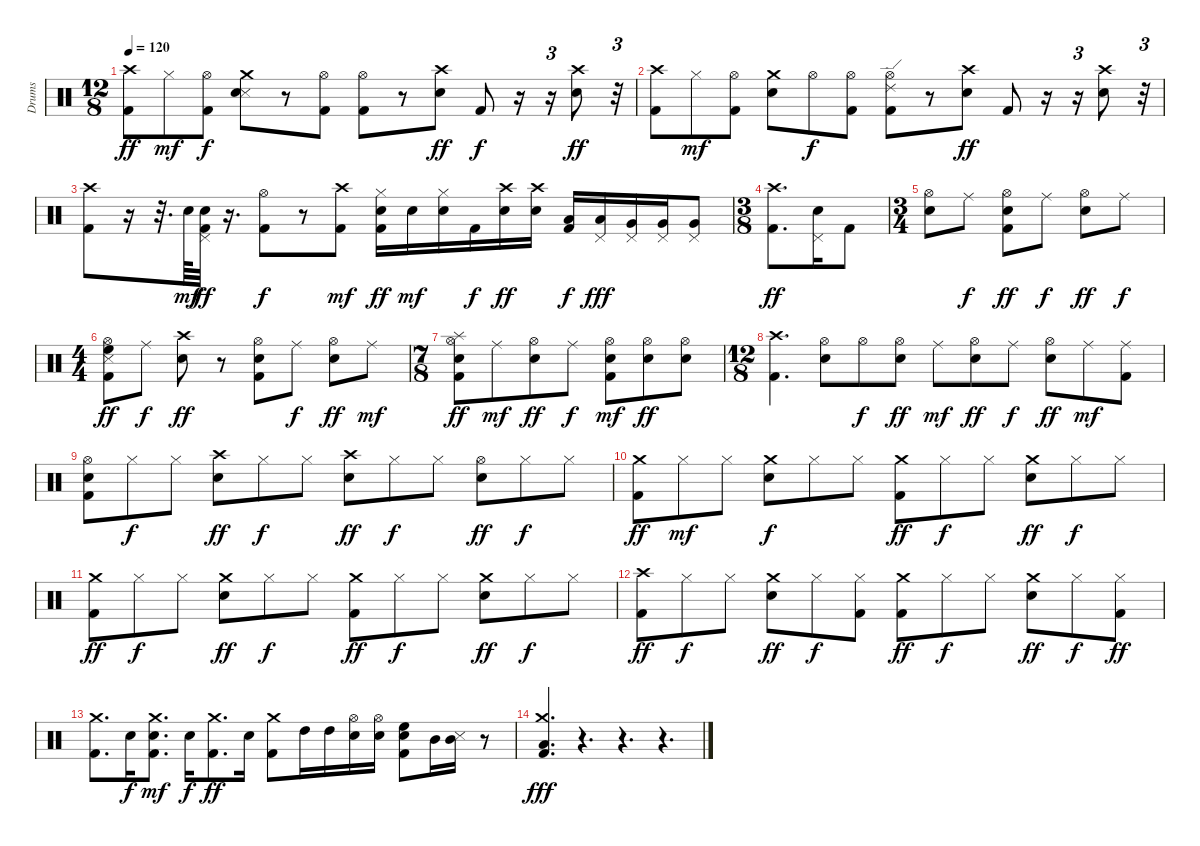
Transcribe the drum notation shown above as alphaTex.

\track ("Drums" "Drums") {instrument percussion}
\staff {score}
\articulation defaults
\ts (12 8)
\tempo 120
\clef neutral
\ks c
("Crash high (hit)" "Kick (hit) 2").8{dy ff} "Hi-Hat (closed)".8{dy mf} ("Hi-Hat (open)" "Kick (hit) 2").8{dy f} ("Crash medium (hit)" "Snare (side stick) 3" "Snare (hit) 2").8 r.8 ("Hi-Hat (open)" "Kick (hit) 2").8 ("Hi-Hat (open)" "Kick (hit) 2").8 r.8 ("Crash high (hit)" "Snare (hit) 2").8{dy ff} "Kick (hit) 2".8{dy f} r.16 r.16{tu (3 2)} ("Crash high (hit)" "Snare (hit) 2").8{dy ff} r.32{tu (3 2)} |
("Crash high (hit)" "Kick (hit) 2").8 "Hi-Hat (closed)".8{dy mf} ("Hi-Hat (open)" "Kick (hit) 2").8 ("Crash medium (hit)" "Snare (hit) 2").8 "Hi-Hat (open)".8{dy f} ("Hi-Hat (open)" "Kick (hit) 2").8 ("Hi-Hat (open)" "Ride (edge) 2" "Kick (hit) 2").8 r.8 ("Crash high (hit)" "Snare (hit) 2").8{dy ff} "Kick (hit) 2".8 r.16 r.16{tu (3 2)} ("Crash high (hit)" "Snare (hit) 2").8 r.32{tu (3 2)} |
("Crash high (hit)" "Kick (hit) 2").8 r.16 r.32{d} "Snare (hit) 2".64{dy mf} ("Pedal Hi-Hat (hit)" "Snare (hit) 2" "Kick (hit) 2").32{dy ff} r.16{d} ("Hi-Hat (open)" "Kick (hit) 2").8{dy f} r.8 ("Crash high (hit)" "Kick (hit) 2").8{dy mf} ("Hi-Hat (closed)" "Snare (hit) 2" "Kick (hit) 2").16{dy ff} "Snare (hit) 2".16{dy mf} ("Hi-Hat (closed)" "Snare (hit) 2").16 "Kick (hit) 2".16{dy f} ("Crash high (hit)" "Snare (hit) 2").16{dy ff} ("Crash high (hit)" "Snare (hit) 2").16 ("Low Tom (hit)" "Kick (hit) 2").16{dy f} ("Pedal Hi-Hat (hit)" "Low Tom (hit)").16{dy fff} ("Pedal Hi-Hat (hit)" "Very Low Tom (hit)").16 ("Pedal Hi-Hat (hit)" "Very Low Tom (hit)").16 ("Pedal Hi-Hat (hit)" "Very Low Tom (hit)").8 |
\ts (3 8)
("Crash high (hit)" "Kick (hit) 2").8{d dy ff} ("Pedal Hi-Hat (hit)" "Snare (hit) 2").16 "Kick (hit) 2".8 |
\ts (3 4)
("Hi-Hat (open)" "Snare (hit) 2").8 "Ride (middle)".8{dy f} ("Hi-Hat (open)" "Snare (hit) 2" "Kick (hit) 2").8{dy ff} "Ride (middle)".8{dy f} ("Hi-Hat (open)" "Snare (hit) 2").8{dy ff} "Ride (middle)".8{dy f} |
\ts (4 4)
("Hi-Hat (open)" "Snare (side stick) 3" "High Floor Tom (hit)" "Kick (hit) 2").8{dy ff} "Ride (middle)".8{dy f} ("Crash high (hit)" "Snare (hit) 2").8{dy ff} r.8 ("Hi-Hat (open)" "Snare (hit) 2" "Kick (hit) 2").8 "Ride (middle)".8{dy f} ("Hi-Hat (open)" "Snare (hit) 2").8{dy ff} "Ride (middle)".8{dy mf} |
\ts (7 8)
("Splash (hit)" "Hi-Hat (open)" "Kick (hit) 2" "Snare (hit) 2").8{dy ff} "Ride (middle)".8{dy mf} ("Hi-Hat (open)" "Snare (hit) 2").8{dy ff} "Ride (middle)".8{dy f} ("Hi-Hat (open)" "Snare (hit) 2" "Kick (hit) 2").8{dy mf} ("Hi-Hat (open)" "Snare (hit) 2").8{dy ff} ("Hi-Hat (open)" "Snare (hit) 2").8 |
\ts (12 8)
("Crash high (hit)" "Kick (hit) 2").4{d} ("Hi-Hat (open)" "Snare (hit) 2").8 "Hi-Hat (open)".8{dy f} ("Hi-Hat (open)" "Snare (hit) 2").8{dy ff} "Ride (middle)".8{dy mf} ("Hi-Hat (open)" "Snare (hit) 2").8{dy ff} "Ride (middle)".8{dy f} ("Hi-Hat (open)" "Snare (hit) 2").8{dy ff} "Ride (middle)".8{dy mf} ("Ride (middle)" "Kick (hit) 2").8 |
("Hi-Hat (open)" "Snare (hit) 2" "Kick (hit) 2").8 "Hi-Hat (closed)".8{dy f} "Hi-Hat (closed)".8 ("Crash high (hit)" "Snare (hit) 2").8{dy ff} "Hi-Hat (closed)".8{dy f} "Hi-Hat (closed)".8 ("Crash high (hit)" "Snare (hit) 2").8{dy ff} "Hi-Hat (closed)".8{dy f} "Hi-Hat (closed)".8 ("Hi-Hat (open)" "Snare (hit) 2").8{dy ff} "Hi-Hat (closed)".8{dy f} "Hi-Hat (closed)".8 |
("Crash medium (hit)" "Kick (hit) 2").8{dy ff} "Hi-Hat (closed)".8{dy mf} "Hi-Hat (closed)".8 ("Crash medium (hit)" "Snare (hit) 2").8{dy f} "Hi-Hat (closed)".8 "Hi-Hat (closed)".8 ("Crash medium (hit)" "Kick (hit) 2").8{dy ff} "Hi-Hat (closed)".8{dy f} "Hi-Hat (closed)".8 ("Crash medium (hit)" "Snare (hit) 2").8{dy ff} "Hi-Hat (closed)".8{dy f} "Hi-Hat (closed)".8 |
("Crash medium (hit)" "Kick (hit) 2").8{dy ff} "Hi-Hat (closed)".8{dy f} "Hi-Hat (closed)".8 ("Crash medium (hit)" "Snare (hit) 2").8{dy ff} "Hi-Hat (closed)".8{dy f} "Hi-Hat (closed)".8 ("Crash medium (hit)" "Kick (hit) 2").8{dy ff} "Hi-Hat (closed)".8{dy f} "Hi-Hat (closed)".8 ("Crash medium (hit)" "Snare (hit) 2").8{dy ff} "Hi-Hat (closed)".8{dy f} "Hi-Hat (closed)".8 |
("Crash high (hit)" "Kick (hit) 2").8{dy ff} "Hi-Hat (closed)".8{dy f} "Hi-Hat (closed)".8 ("Crash medium (hit)" "Snare (hit) 2").8{dy ff} "Hi-Hat (closed)".8{dy f} ("Hi-Hat (closed)" "Kick (hit) 2").8 ("Crash medium (hit)" "Kick (hit) 2").8{dy ff} "Hi-Hat (closed)".8{dy f} "Hi-Hat (closed)".8 ("Crash medium (hit)" "Snare (hit) 2").8{dy ff} "Hi-Hat (closed)".8{dy f} ("Hi-Hat (closed)" "Kick (hit) 2").8{dy ff} |
("Crash medium (hit)" "Kick (hit) 2").8{d} "Snare (hit) 2".16{dy f} ("Crash medium (hit)" "Snare (hit) 2" "Kick (hit) 2").8{d dy mf} "Snare (hit) 2".16{dy f} ("Crash medium (hit)" "Kick (hit) 2").8{d dy ff} "Snare (hit) 2".16 ("Crash medium (hit)" "Kick (hit) 2").8 "High Tom (hit)".16 "High Tom (hit)".16 ("Hi-Hat (open)" "Snare (hit) 2").16 ("Hi-Hat (open)" "Snare (hit) 2").16 ("High Floor Tom (hit)" "Snare (hit) 2" "Kick (hit) 2").8 "Mid Tom (hit)".16 ("Snare (side stick) 3" "Mid Tom (hit)").16 r.8 |
("Crash medium (hit)" "Low Floor Tom (hit)" "Kick (hit) 2").4{d dy fff} r.4{d} r.4{d} r.4{d}
